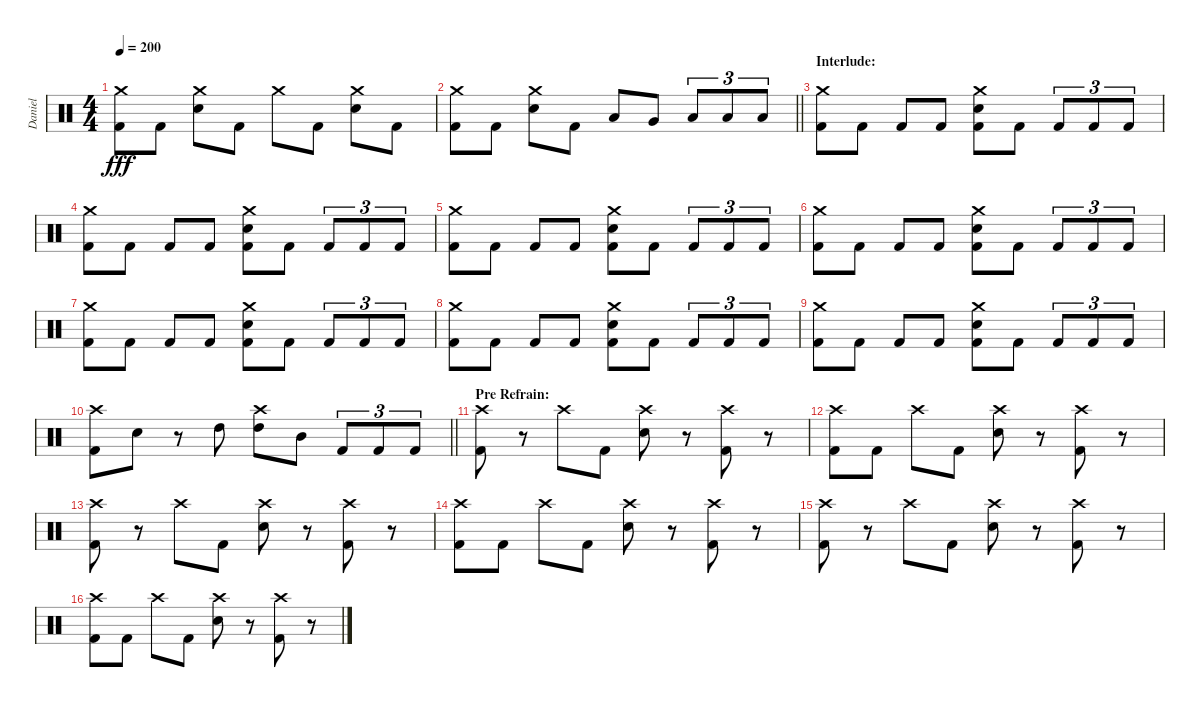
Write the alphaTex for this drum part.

\track ("Daniel" "Daniel") {instrument percussion}
\staff {score}
\articulation defaults
\ts (4 4)
\tempo 200
\clef neutral
\ks c
("Crash medium (hit)" "Kick (hit) 2").8{dy fff} "Kick (hit) 2".8 ("Crash medium (hit)" "Electric Snare (hit)").8 "Kick (hit) 2".8 "Crash medium (hit)".8 "Kick (hit) 2".8 ("Crash medium (hit)" "Electric Snare (hit)").8 "Kick (hit) 2".8 |
\barLineRight lightlight
("Crash medium (hit)" "Kick (hit) 2").8 "Kick (hit) 2".8 ("Crash medium (hit)" "Electric Snare (hit)").8 "Kick (hit) 2".8 "Low Tom (hit)".8 "Very Low Tom (hit)".8 "Low Floor Tom (hit)".8{tu (3 2)} "Low Floor Tom (hit)".8{tu (3 2)} "Low Floor Tom (hit)".8{tu (3 2)} |
\section ("" "Interlude:")
("Crash medium (hit)" "Kick (hit) 2").8 "Kick (hit) 2".8 "Kick (hit) 2".8 "Kick (hit) 2".8 ("Crash medium (hit)" "Electric Snare (hit)" "Kick (hit) 2").8 "Kick (hit) 2".8 "Kick (hit) 2".8{tu (3 2)} "Kick (hit) 2".8{tu (3 2)} "Kick (hit) 2".8{tu (3 2)} |
("Crash medium (hit)" "Kick (hit) 2").8 "Kick (hit) 2".8 "Kick (hit) 2".8 "Kick (hit) 2".8 ("Crash medium (hit)" "Electric Snare (hit)" "Kick (hit) 2").8 "Kick (hit) 2".8 "Kick (hit) 2".8{tu (3 2)} "Kick (hit) 2".8{tu (3 2)} "Kick (hit) 2".8{tu (3 2)} |
("Crash medium (hit)" "Kick (hit) 2").8 "Kick (hit) 2".8 "Kick (hit) 2".8 "Kick (hit) 2".8 ("Crash medium (hit)" "Electric Snare (hit)" "Kick (hit) 2").8 "Kick (hit) 2".8 "Kick (hit) 2".8{tu (3 2)} "Kick (hit) 2".8{tu (3 2)} "Kick (hit) 2".8{tu (3 2)} |
("Crash medium (hit)" "Kick (hit) 2").8 "Kick (hit) 2".8 "Kick (hit) 2".8 "Kick (hit) 2".8 ("Crash medium (hit)" "Electric Snare (hit)" "Kick (hit) 2").8 "Kick (hit) 2".8 "Kick (hit) 2".8{tu (3 2)} "Kick (hit) 2".8{tu (3 2)} "Kick (hit) 2".8{tu (3 2)} |
("Crash medium (hit)" "Kick (hit) 2").8 "Kick (hit) 2".8 "Kick (hit) 2".8 "Kick (hit) 2".8 ("Crash medium (hit)" "Electric Snare (hit)" "Kick (hit) 2").8 "Kick (hit) 2".8 "Kick (hit) 2".8{tu (3 2)} "Kick (hit) 2".8{tu (3 2)} "Kick (hit) 2".8{tu (3 2)} |
("Crash medium (hit)" "Kick (hit) 2").8 "Kick (hit) 2".8 "Kick (hit) 2".8 "Kick (hit) 2".8 ("Crash medium (hit)" "Electric Snare (hit)" "Kick (hit) 2").8 "Kick (hit) 2".8 "Kick (hit) 2".8{tu (3 2)} "Kick (hit) 2".8{tu (3 2)} "Kick (hit) 2".8{tu (3 2)} |
("Crash medium (hit)" "Kick (hit) 2").8 "Kick (hit) 2".8 "Kick (hit) 2".8 "Kick (hit) 2".8 ("Crash medium (hit)" "Electric Snare (hit)" "Kick (hit) 2").8 "Kick (hit) 2".8 "Kick (hit) 2".8{tu (3 2)} "Kick (hit) 2".8{tu (3 2)} "Kick (hit) 2".8{tu (3 2)} |
\barLineRight lightlight
("Crash high (hit)" "Kick (hit) 2").8 "Electric Snare (hit)".8 r.8 "High Tom (hit)".8 ("Crash high (hit)" "High Tom (hit)").8 "Mid Tom (hit)".8 "Kick (hit) 2".8{tu (3 2)} "Kick (hit) 2".8{tu (3 2)} "Kick (hit) 2".8{tu (3 2)} |
\section ("" "Pre Refrain:")
("Crash high (hit)" "Kick (hit) 2").8 r.8 "Crash high (hit)".8 "Kick (hit) 2".8 ("Crash high (hit)" "Electric Snare (hit)").8 r.8 ("Crash high (hit)" "Kick (hit) 2").8 r.8 |
("Crash high (hit)" "Kick (hit) 2").8 "Kick (hit) 2".8 "Crash high (hit)".8 "Kick (hit) 2".8 ("Crash high (hit)" "Electric Snare (hit)").8 r.8 ("Crash high (hit)" "Kick (hit) 2").8 r.8 |
("Crash high (hit)" "Kick (hit) 2").8 r.8 "Crash high (hit)".8 "Kick (hit) 2".8 ("Crash high (hit)" "Electric Snare (hit)").8 r.8 ("Crash high (hit)" "Kick (hit) 2").8 r.8 |
("Crash high (hit)" "Kick (hit) 2").8 "Kick (hit) 2".8 "Crash high (hit)".8 "Kick (hit) 2".8 ("Crash high (hit)" "Electric Snare (hit)").8 r.8 ("Crash high (hit)" "Kick (hit) 2").8 r.8 |
("Crash high (hit)" "Kick (hit) 2").8 r.8 "Crash high (hit)".8 "Kick (hit) 2".8 ("Crash high (hit)" "Electric Snare (hit)").8 r.8 ("Crash high (hit)" "Kick (hit) 2").8 r.8 |
("Crash high (hit)" "Kick (hit) 2").8 "Kick (hit) 2".8 "Crash high (hit)".8 "Kick (hit) 2".8 ("Crash high (hit)" "Electric Snare (hit)").8 r.8 ("Crash high (hit)" "Kick (hit) 2").8 r.8
